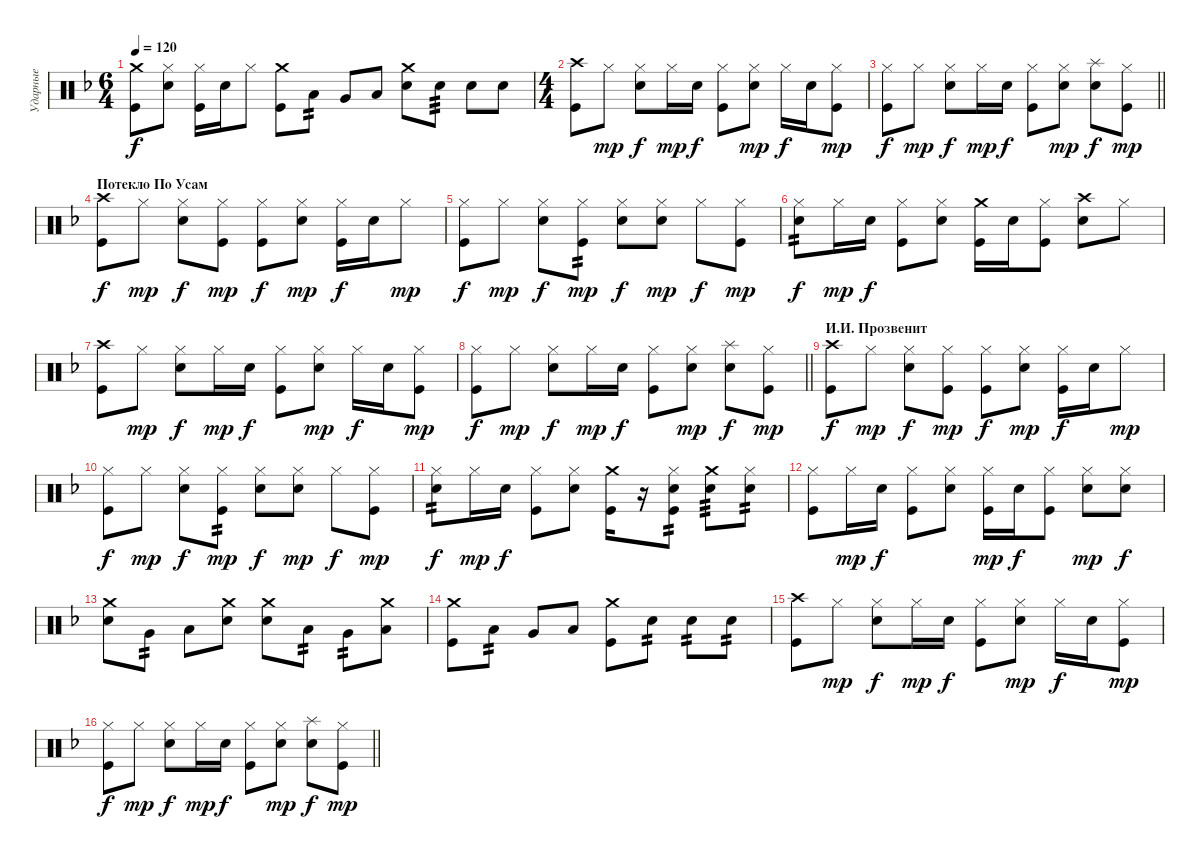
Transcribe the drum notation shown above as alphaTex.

\track ("Ударные" "Ударные") {instrument percussion}
\staff {score}
\articulation defaults
\ts (6 4)
\tempo 120
\clef neutral
\ks dminor
("Crash medium (hit)" "Kick (hit)").8{dy f} ("Hi-Hat (closed)" "Snare (hit) 2").8 ("Hi-Hat (closed)" "Kick (hit)").16 "Snare (hit) 2".16 "Hi-Hat (closed)".8 ("Crash medium (hit)" "Kick (hit)").8 "Low Tom (hit)".8{tp 2} "Very Low Tom (hit)".8 "Low Floor Tom (hit)".8 ("Crash medium (hit)" "Snare (hit) 2").8 "Snare (hit) 2".8{tp 3} "Snare (hit) 2".8 "Snare (hit) 2".8 |
\ts (4 4)
("Crash high (hit)" "Kick (hit)").8 "Hi-Hat (closed)".8{dy mp} ("Hi-Hat (closed)" "Snare (hit) 2").8{dy f} "Hi-Hat (closed)".16{dy mp} "Snare (hit) 2".16{dy f} ("Hi-Hat (closed)" "Kick (hit)").8 ("Hi-Hat (closed)" "Snare (hit) 2").8{dy mp} "Hi-Hat (closed)".16{dy f} "Snare (hit) 2".16 ("Hi-Hat (closed)" "Kick (hit)").8{dy mp} |
\barLineRight lightlight
("Hi-Hat (closed)" "Kick (hit)").8{dy f} "Hi-Hat (closed)".8{dy mp} ("Hi-Hat (closed)" "Snare (hit) 2").8{dy f} "Hi-Hat (closed)".16{dy mp} "Snare (hit) 2".16{dy f} ("Hi-Hat (closed)" "Kick (hit)").8 ("Hi-Hat (closed)" "Snare (hit) 2").8{dy mp} ("Splash (hit)" "Snare (hit) 2").8{dy f} ("Hi-Hat (closed)" "Kick (hit)").8{dy mp} |
\section ("" "Потекло По Усам")
("Crash high (hit)" "Kick (hit)").8{dy f} "Hi-Hat (closed)".8{dy mp} ("Hi-Hat (closed)" "Snare (hit) 2").8{dy f} ("Hi-Hat (closed)" "Kick (hit)").8{dy mp} ("Hi-Hat (closed)" "Kick (hit)").8{dy f} ("Hi-Hat (closed)" "Snare (hit) 2").8{dy mp} ("Hi-Hat (closed)" "Kick (hit)").16{dy f} "Snare (hit) 2".16 "Hi-Hat (closed)".8{dy mp} |
("Hi-Hat (closed)" "Kick (hit)").8{dy f} "Hi-Hat (closed)".8{dy mp} ("Hi-Hat (closed)" "Snare (hit) 2").8{dy f} ("Hi-Hat (closed)" "Kick (hit)").8{tp 2 dy mp} ("Hi-Hat (closed)" "Snare (hit) 2").8{dy f} ("Hi-Hat (closed)" "Snare (hit) 2").8{dy mp} "Hi-Hat (closed)".8{dy f} ("Hi-Hat (closed)" "Kick (hit)").8{dy mp} |
("Hi-Hat (closed)" "Snare (hit) 2").8{tp 2 dy f} "Hi-Hat (closed)".16{dy mp} "Snare (hit) 2".16{dy f} ("Hi-Hat (closed)" "Kick (hit)").8 ("Hi-Hat (closed)" "Snare (hit) 2").8 ("Crash medium (hit)" "Kick (hit)").16 "Snare (hit) 2".16 ("Hi-Hat (closed)" "Kick (hit)").8 ("Crash high (hit)" "Snare (hit) 2").8 "Hi-Hat (closed)".8 |
("Crash high (hit)" "Kick (hit)").8 "Hi-Hat (closed)".8{dy mp} ("Hi-Hat (closed)" "Snare (hit) 2").8{dy f} "Hi-Hat (closed)".16{dy mp} "Snare (hit) 2".16{dy f} ("Hi-Hat (closed)" "Kick (hit)").8 ("Hi-Hat (closed)" "Snare (hit) 2").8{dy mp} "Hi-Hat (closed)".16{dy f} "Snare (hit) 2".16 ("Hi-Hat (closed)" "Kick (hit)").8{dy mp} |
\barLineRight lightlight
("Hi-Hat (closed)" "Kick (hit)").8{dy f} "Hi-Hat (closed)".8{dy mp} ("Hi-Hat (closed)" "Snare (hit) 2").8{dy f} "Hi-Hat (closed)".16{dy mp} "Snare (hit) 2".16{dy f} ("Hi-Hat (closed)" "Kick (hit)").8 ("Hi-Hat (closed)" "Snare (hit) 2").8{dy mp} ("Splash (hit)" "Snare (hit) 2").8{dy f} ("Hi-Hat (closed)" "Kick (hit)").8{dy mp} |
\section ("" "И.И. Прозвенит")
("Crash high (hit)" "Kick (hit)").8{dy f} "Hi-Hat (closed)".8{dy mp} ("Hi-Hat (closed)" "Snare (hit) 2").8{dy f} ("Hi-Hat (closed)" "Kick (hit)").8{dy mp} ("Hi-Hat (closed)" "Kick (hit)").8{dy f} ("Hi-Hat (closed)" "Snare (hit) 2").8{dy mp} ("Hi-Hat (closed)" "Kick (hit)").16{dy f} "Snare (hit) 2".16 "Hi-Hat (closed)".8{dy mp} |
("Hi-Hat (closed)" "Kick (hit)").8{dy f} "Hi-Hat (closed)".8{dy mp} ("Hi-Hat (closed)" "Snare (hit) 2").8{dy f} ("Hi-Hat (closed)" "Kick (hit)").8{tp 2 dy mp} ("Hi-Hat (closed)" "Snare (hit) 2").8{dy f} ("Hi-Hat (closed)" "Snare (hit) 2").8{dy mp} "Hi-Hat (closed)".8{dy f} ("Hi-Hat (closed)" "Kick (hit)").8{dy mp} |
("Hi-Hat (closed)" "Snare (hit) 2").8{tp 2 dy f} "Hi-Hat (closed)".16{dy mp} "Snare (hit) 2".16{dy f} ("Hi-Hat (closed)" "Kick (hit)").8 ("Hi-Hat (closed)" "Snare (hit) 2").8 ("Crash medium (hit)" "Kick (hit)").16 r.16 ("Hi-Hat (closed)" "Snare (hit) 2" "Kick (hit)").8{tp 2} ("Crash medium (hit)" "Snare (hit) 2").8{tp 3} ("Hi-Hat (closed)" "Snare (hit) 2").8{tp 2} |
("Hi-Hat (closed)" "Kick (hit)").8 "Hi-Hat (closed)".16{dy mp} "Snare (hit) 2".16{dy f} ("Hi-Hat (closed)" "Kick (hit)").8 ("Hi-Hat (closed)" "Snare (hit) 2").8 ("Hi-Hat (closed)" "Kick (hit)").16{dy mp} "Snare (hit) 2".16{dy f} ("Hi-Hat (closed)" "Kick (hit)").8 ("Hi-Hat (closed)" "Snare (hit) 2").8{dy mp} ("Hi-Hat (closed)" "Snare (hit) 2").8{dy f} |
("Crash medium (hit)" "Snare (hit) 2").8 "Very Low Tom (hit)".8{tp 2} "Low Floor Tom (hit)".8 ("Crash medium (hit)" "Snare (hit) 2").8 ("Crash medium (hit)" "Snare (hit) 2").8 "Low Tom (hit)".8{tp 2} "Very Low Tom (hit)".8{tp 2} ("Crash medium (hit)" "Low Floor Tom (hit)").8 |
("Crash medium (hit)" "Kick (hit)").8 "Low Tom (hit)".8{tp 2} "Very Low Tom (hit)".8 "Low Floor Tom (hit)".8 ("Crash medium (hit)" "Kick (hit)").8 "Snare (hit) 2".8{tp 2} "Snare (hit) 2".8{tp 2} "Snare (hit) 2".8{tp 2} |
("Crash high (hit)" "Kick (hit)").8 "Hi-Hat (closed)".8{dy mp} ("Hi-Hat (closed)" "Snare (hit) 2").8{dy f} "Hi-Hat (closed)".16{dy mp} "Snare (hit) 2".16{dy f} ("Hi-Hat (closed)" "Kick (hit)").8 ("Hi-Hat (closed)" "Snare (hit) 2").8{dy mp} "Hi-Hat (closed)".16{dy f} "Snare (hit) 2".16 ("Hi-Hat (closed)" "Kick (hit)").8{dy mp} |
\barLineRight lightlight
("Hi-Hat (closed)" "Kick (hit)").8{dy f} "Hi-Hat (closed)".8{dy mp} ("Hi-Hat (closed)" "Snare (hit) 2").8{dy f} "Hi-Hat (closed)".16{dy mp} "Snare (hit) 2".16{dy f} ("Hi-Hat (closed)" "Kick (hit)").8 ("Hi-Hat (closed)" "Snare (hit) 2").8{dy mp} ("Splash (hit)" "Snare (hit) 2").8{dy f} ("Hi-Hat (closed)" "Kick (hit)").8{dy mp}
